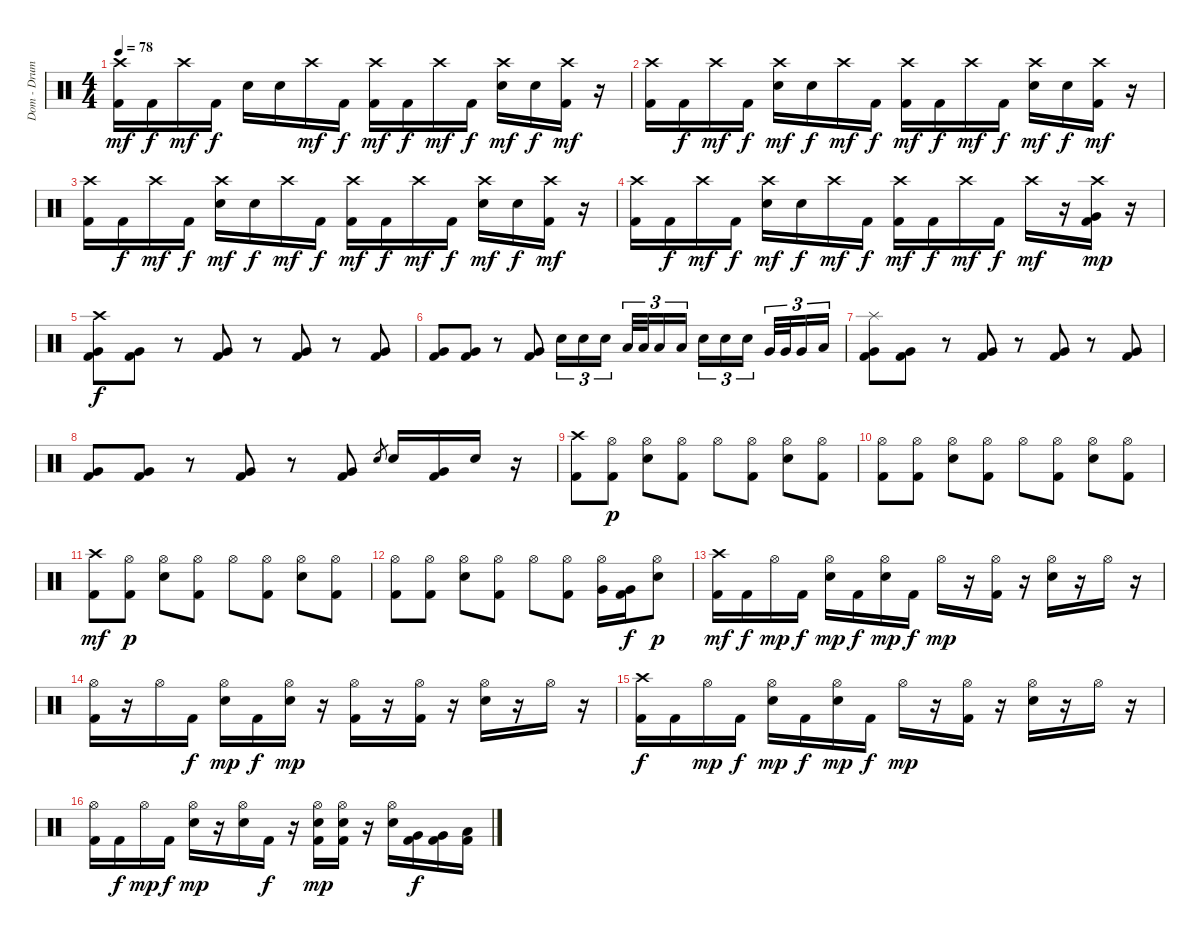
\track ("Dom - Drums" "Dom - Drum") {instrument percussion}
\staff {score}
\articulation defaults
\ts (4 4)
\tempo 78
\clef neutral
\ks c
("Crash high (hit)" "Kick (hit) 2").16{dy mf} "Kick (hit) 2".16{dy f} "Crash high (hit)".16{dy mf} "Kick (hit) 2".16{dy f} "Electric Snare (hit)".16 "Electric Snare (hit)".16 "Crash high (hit)".16{dy mf} "Kick (hit) 2".16{dy f} ("Crash high (hit)" "Kick (hit) 2").16{dy mf} "Kick (hit) 2".16{dy f} "Crash high (hit)".16{dy mf} "Kick (hit) 2".16{dy f} ("Crash high (hit)" "Electric Snare (hit)").16{dy mf} "Electric Snare (hit)".16{dy f} ("Crash high (hit)" "Kick (hit) 2").16{dy mf} r.16 |
("Crash high (hit)" "Kick (hit) 2").16 "Kick (hit) 2".16{dy f} "Crash high (hit)".16{dy mf} "Kick (hit) 2".16{dy f} ("Crash high (hit)" "Electric Snare (hit)").16{dy mf} "Electric Snare (hit)".16{dy f} "Crash high (hit)".16{dy mf} "Kick (hit) 2".16{dy f} ("Crash high (hit)" "Kick (hit) 2").16{dy mf} "Kick (hit) 2".16{dy f} "Crash high (hit)".16{dy mf} "Kick (hit) 2".16{dy f} ("Crash high (hit)" "Electric Snare (hit)").16{dy mf} "Electric Snare (hit)".16{dy f} ("Crash high (hit)" "Kick (hit) 2").16{dy mf} r.16 |
("Crash high (hit)" "Kick (hit) 2").16 "Kick (hit) 2".16{dy f} "Crash high (hit)".16{dy mf} "Kick (hit) 2".16{dy f} ("Crash high (hit)" "Electric Snare (hit)").16{dy mf} "Electric Snare (hit)".16{dy f} "Crash high (hit)".16{dy mf} "Kick (hit) 2".16{dy f} ("Crash high (hit)" "Kick (hit) 2").16{dy mf} "Kick (hit) 2".16{dy f} "Crash high (hit)".16{dy mf} "Kick (hit) 2".16{dy f} ("Crash high (hit)" "Electric Snare (hit)").16{dy mf} "Electric Snare (hit)".16{dy f} ("Crash high (hit)" "Kick (hit) 2").16{dy mf} r.16 |
("Crash high (hit)" "Kick (hit) 2").16 "Kick (hit) 2".16{dy f} "Crash high (hit)".16{dy mf} "Kick (hit) 2".16{dy f} ("Crash high (hit)" "Electric Snare (hit)").16{dy mf} "Electric Snare (hit)".16{dy f} "Crash high (hit)".16{dy mf} "Kick (hit) 2".16{dy f} ("Crash high (hit)" "Kick (hit) 2").16{dy mf} "Kick (hit) 2".16{dy f} "Crash high (hit)".16{dy mf} "Kick (hit) 2".16{dy f} "Crash high (hit)".16{dy mf} r.16 ("Crash high (hit)" "Very Low Tom (hit)" "Kick (hit) 2").16{dy mp} r.16 |
("Crash high (hit)" "Very Low Tom (hit)" "Kick (hit) 2").8{dy f} ("Very Low Tom (hit)" "Kick (hit) 2").8 r.8 ("Very Low Tom (hit)" "Kick (hit) 2").8 r.8 ("Very Low Tom (hit)" "Kick (hit) 2").8 r.8 ("Very Low Tom (hit)" "Kick (hit) 2").8 |
("Very Low Tom (hit)" "Kick (hit) 2").8 ("Very Low Tom (hit)" "Kick (hit) 2").8 r.8 ("Very Low Tom (hit)" "Kick (hit) 2").8 "Electric Snare (hit)".16{tu (3 2)} "Electric Snare (hit)".16{tu (3 2)} "Electric Snare (hit)".16{tu (3 2)} "Low Tom (hit)".32{tu (3 2)} "Low Tom (hit)".32{tu (3 2)} "Low Tom (hit)".16{tu (3 2)} "Low Tom (hit)".16{tu (3 2)} "Electric Snare (hit)".16{tu (3 2)} "Electric Snare (hit)".16{tu (3 2)} "Electric Snare (hit)".16{tu (3 2)} "Very Low Tom (hit)".32{tu (3 2)} "Very Low Tom (hit)".32{tu (3 2)} "Very Low Tom (hit)".16{tu (3 2)} "Low Floor Tom (hit)".16{tu (3 2)} |
("Splash (hit)" "Very Low Tom (hit)" "Kick (hit) 2").8 ("Very Low Tom (hit)" "Kick (hit) 2").8 r.8 ("Very Low Tom (hit)" "Kick (hit) 2").8 r.8 ("Very Low Tom (hit)" "Kick (hit) 2").8 r.8 ("Very Low Tom (hit)" "Kick (hit) 2").8 |
("Very Low Tom (hit)" "Kick (hit) 2").8 ("Very Low Tom (hit)" "Kick (hit) 2").8 r.8 ("Very Low Tom (hit)" "Kick (hit) 2").8 r.8 ("Very Low Tom (hit)" "Kick (hit) 2").8 "Electric Snare (hit)".8{gr} "Electric Snare (hit)".16 ("Very Low Tom (hit)" "Kick (hit) 2").16 "Electric Snare (hit)".16 r.16 |
("Crash high (hit)" "Kick (hit) 2").8 ("Hi-Hat (open)" "Kick (hit) 2").8{dy p} ("Hi-Hat (open)" "Electric Snare (hit)").8 ("Hi-Hat (open)" "Kick (hit) 2").8 "Hi-Hat (open)".8 ("Hi-Hat (open)" "Kick (hit) 2").8 ("Hi-Hat (open)" "Electric Snare (hit)").8 ("Hi-Hat (open)" "Kick (hit) 2").8 |
("Hi-Hat (open)" "Kick (hit) 2").8 ("Hi-Hat (open)" "Kick (hit) 2").8 ("Hi-Hat (open)" "Electric Snare (hit)").8 ("Hi-Hat (open)" "Kick (hit) 2").8 "Hi-Hat (open)".8 ("Hi-Hat (open)" "Kick (hit) 2").8 ("Hi-Hat (open)" "Electric Snare (hit)").8 ("Hi-Hat (open)" "Kick (hit) 2").8 |
("Crash high (hit)" "Kick (hit) 2").8{dy mf} ("Hi-Hat (open)" "Kick (hit) 2").8{dy p} ("Hi-Hat (open)" "Electric Snare (hit)").8 ("Hi-Hat (open)" "Kick (hit) 2").8 "Hi-Hat (open)".8 ("Hi-Hat (open)" "Kick (hit) 2").8 ("Hi-Hat (open)" "Electric Snare (hit)").8 ("Hi-Hat (open)" "Kick (hit) 2").8 |
("Hi-Hat (open)" "Kick (hit) 2").8 ("Hi-Hat (open)" "Kick (hit) 2").8 ("Hi-Hat (open)" "Electric Snare (hit)").8 ("Hi-Hat (open)" "Kick (hit) 2").8 "Hi-Hat (open)".8 ("Hi-Hat (open)" "Kick (hit) 2").8 ("Hi-Hat (open)" "Very Low Tom (hit)").16 ("Very Low Tom (hit)" "Kick (hit) 2").16{dy f} ("Hi-Hat (open)" "Electric Snare (hit)").8{dy p} |
("Crash high (hit)" "Kick (hit) 2").16{dy mf} "Kick (hit) 2".16{dy f} "Hi-Hat (open)".16{dy mp} "Kick (hit) 2".16{dy f} ("Hi-Hat (open)" "Electric Snare (hit)").16{dy mp} "Kick (hit) 2".16{dy f} ("Hi-Hat (open)" "Electric Snare (hit)").16{dy mp} "Kick (hit) 2".16{dy f} "Hi-Hat (open)".16{dy mp} r.16 ("Hi-Hat (open)" "Kick (hit) 2").16 r.16 ("Hi-Hat (open)" "Electric Snare (hit)").16 r.16 "Hi-Hat (open)".16 r.16 |
("Hi-Hat (open)" "Kick (hit) 2").16 r.16 "Hi-Hat (open)".16 "Kick (hit) 2".16{dy f} ("Hi-Hat (open)" "Electric Snare (hit)").16{dy mp} "Kick (hit) 2".16{dy f} ("Hi-Hat (open)" "Electric Snare (hit)").16{dy mp} r.16 ("Hi-Hat (open)" "Kick (hit) 2").16 r.16 ("Hi-Hat (open)" "Kick (hit) 2").16 r.16 ("Hi-Hat (open)" "Electric Snare (hit)").16 r.16 "Hi-Hat (open)".16 r.16 |
("Crash high (hit)" "Kick (hit) 2").16{dy f} "Kick (hit) 2".16 "Hi-Hat (open)".16{dy mp} "Kick (hit) 2".16{dy f} ("Hi-Hat (open)" "Electric Snare (hit)").16{dy mp} "Kick (hit) 2".16{dy f} ("Hi-Hat (open)" "Electric Snare (hit)").16{dy mp} "Kick (hit) 2".16{dy f} "Hi-Hat (open)".16{dy mp} r.16 ("Hi-Hat (open)" "Kick (hit) 2").16 r.16 ("Hi-Hat (open)" "Electric Snare (hit)").16 r.16 "Hi-Hat (open)".16 r.16 |
("Hi-Hat (open)" "Kick (hit) 2").16 "Kick (hit) 2".16{dy f} "Hi-Hat (open)".16{dy mp} "Kick (hit) 2".16{dy f} ("Hi-Hat (open)" "Electric Snare (hit)").16{dy mp} r.16 ("Hi-Hat (open)" "Electric Snare (hit)").16 "Kick (hit) 2".16{dy f} r.16 ("Hi-Hat (open)" "Electric Snare (hit)" "Kick (hit) 2").16{dy mp} ("Hi-Hat (open)" "Electric Snare (hit)" "Kick (hit) 2").16 r.16 ("Hi-Hat (open)" "Electric Snare (hit)").16 ("Very Low Tom (hit)" "Kick (hit) 2").16{dy f} ("Very Low Tom (hit)" "Kick (hit) 2").16 ("Low Floor Tom (hit)" "Kick (hit) 2").16
